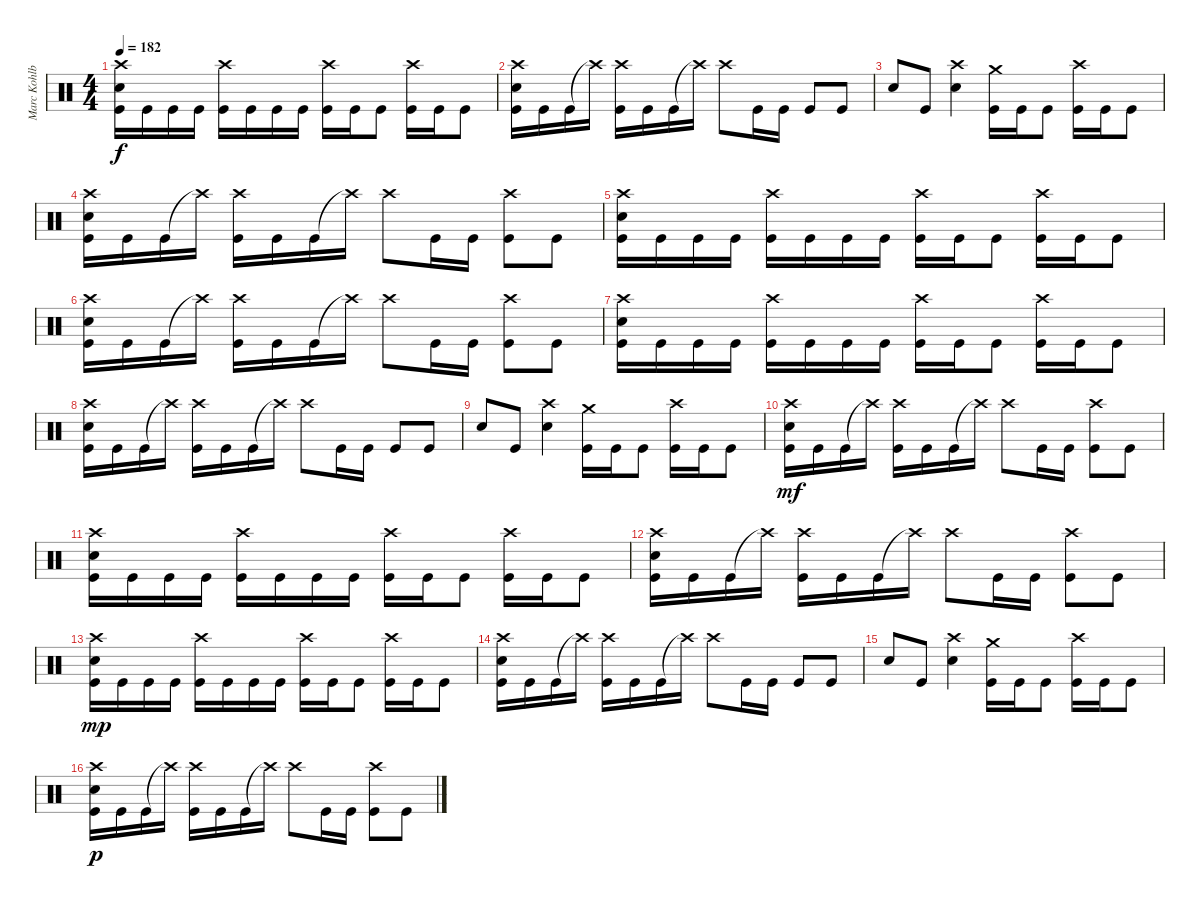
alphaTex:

\track ("Marc Kohlbry" "Marc Kohlb") {instrument percussion}
\staff {score}
\articulation defaults
\ts (4 4)
\tempo 182
\clef neutral
\ks c
("Crash high (hit)" "Electric Snare (hit)" "Kick (hit)").16{dy f} "Kick (hit)".16 "Kick (hit)".16 "Kick (hit)".16 ("Crash high (hit)" "Kick (hit)").16 "Kick (hit)".16 "Kick (hit)".16 "Kick (hit)".16 ("Crash high (hit)" "Kick (hit)").16 "Kick (hit)".16 "Kick (hit)".8 ("Crash high (hit)" "Kick (hit)").16 "Kick (hit)".16 "Kick (hit)".8 |
("Crash high (hit)" "Electric Snare (hit)" "Kick (hit)").16 "Kick (hit)".16 "Kick (hit)".16 "Crash high (hit)"{t}.16 ("Crash high (hit)" "Kick (hit)").16 "Kick (hit)".16 "Kick (hit)".16 "Crash high (hit)"{t}.16 "Crash high (hit)".8 "Kick (hit)".16 "Kick (hit)".16 "Kick (hit)".8 "Kick (hit)".8 |
"Electric Snare (hit)".8 "Kick (hit)".8 ("Crash high (hit)" "Electric Snare (hit)").4 ("Crash medium (hit)" "Kick (hit)").16 "Kick (hit)".16 "Kick (hit)".8 ("Crash high (hit)" "Kick (hit)").16 "Kick (hit)".16 "Kick (hit)".8 |
("Crash high (hit)" "Electric Snare (hit)" "Kick (hit)").16 "Kick (hit)".16 "Kick (hit)".16 "Crash high (hit)"{t}.16 ("Crash high (hit)" "Kick (hit)").16 "Kick (hit)".16 "Kick (hit)".16 "Crash high (hit)"{t}.16 "Crash high (hit)".8 "Kick (hit)".16 "Kick (hit)".16 ("Crash high (hit)" "Kick (hit)").8 "Kick (hit)".8 |
("Crash high (hit)" "Electric Snare (hit)" "Kick (hit)").16 "Kick (hit)".16 "Kick (hit)".16 "Kick (hit)".16 ("Crash high (hit)" "Kick (hit)").16 "Kick (hit)".16 "Kick (hit)".16 "Kick (hit)".16 ("Crash high (hit)" "Kick (hit)").16 "Kick (hit)".16 "Kick (hit)".8 ("Crash high (hit)" "Kick (hit)").16 "Kick (hit)".16 "Kick (hit)".8 |
("Crash high (hit)" "Electric Snare (hit)" "Kick (hit)").16 "Kick (hit)".16 "Kick (hit)".16 "Crash high (hit)"{t}.16 ("Crash high (hit)" "Kick (hit)").16 "Kick (hit)".16 "Kick (hit)".16 "Crash high (hit)"{t}.16 "Crash high (hit)".8 "Kick (hit)".16 "Kick (hit)".16 ("Crash high (hit)" "Kick (hit)").8 "Kick (hit)".8 |
("Crash high (hit)" "Electric Snare (hit)" "Kick (hit)").16 "Kick (hit)".16 "Kick (hit)".16 "Kick (hit)".16 ("Crash high (hit)" "Kick (hit)").16 "Kick (hit)".16 "Kick (hit)".16 "Kick (hit)".16 ("Crash high (hit)" "Kick (hit)").16 "Kick (hit)".16 "Kick (hit)".8 ("Crash high (hit)" "Kick (hit)").16 "Kick (hit)".16 "Kick (hit)".8 |
("Crash high (hit)" "Electric Snare (hit)" "Kick (hit)").16 "Kick (hit)".16 "Kick (hit)".16 "Crash high (hit)"{t}.16 ("Crash high (hit)" "Kick (hit)").16 "Kick (hit)".16 "Kick (hit)".16 "Crash high (hit)"{t}.16 "Crash high (hit)".8 "Kick (hit)".16 "Kick (hit)".16 "Kick (hit)".8 "Kick (hit)".8 |
"Electric Snare (hit)".8 "Kick (hit)".8 ("Crash high (hit)" "Electric Snare (hit)").4 ("Crash medium (hit)" "Kick (hit)").16 "Kick (hit)".16 "Kick (hit)".8 ("Crash high (hit)" "Kick (hit)").16 "Kick (hit)".16 "Kick (hit)".8 |
("Crash high (hit)" "Electric Snare (hit)" "Kick (hit)").16{dy mf} "Kick (hit)".16 "Kick (hit)".16 "Crash high (hit)"{t}.16 ("Crash high (hit)" "Kick (hit)").16 "Kick (hit)".16 "Kick (hit)".16 "Crash high (hit)"{t}.16 "Crash high (hit)".8 "Kick (hit)".16 "Kick (hit)".16 ("Crash high (hit)" "Kick (hit)").8 "Kick (hit)".8 |
("Crash high (hit)" "Electric Snare (hit)" "Kick (hit)").16 "Kick (hit)".16 "Kick (hit)".16 "Kick (hit)".16 ("Crash high (hit)" "Kick (hit)").16 "Kick (hit)".16 "Kick (hit)".16 "Kick (hit)".16 ("Crash high (hit)" "Kick (hit)").16 "Kick (hit)".16 "Kick (hit)".8 ("Crash high (hit)" "Kick (hit)").16 "Kick (hit)".16 "Kick (hit)".8 |
("Crash high (hit)" "Electric Snare (hit)" "Kick (hit)").16 "Kick (hit)".16 "Kick (hit)".16 "Crash high (hit)"{t}.16 ("Crash high (hit)" "Kick (hit)").16 "Kick (hit)".16 "Kick (hit)".16 "Crash high (hit)"{t}.16 "Crash high (hit)".8 "Kick (hit)".16 "Kick (hit)".16 ("Crash high (hit)" "Kick (hit)").8 "Kick (hit)".8 |
("Crash high (hit)" "Electric Snare (hit)" "Kick (hit)").16{dy mp} "Kick (hit)".16 "Kick (hit)".16 "Kick (hit)".16 ("Crash high (hit)" "Kick (hit)").16 "Kick (hit)".16 "Kick (hit)".16 "Kick (hit)".16 ("Crash high (hit)" "Kick (hit)").16 "Kick (hit)".16 "Kick (hit)".8 ("Crash high (hit)" "Kick (hit)").16 "Kick (hit)".16 "Kick (hit)".8 |
("Crash high (hit)" "Electric Snare (hit)" "Kick (hit)").16 "Kick (hit)".16 "Kick (hit)".16 "Crash high (hit)"{t}.16 ("Crash high (hit)" "Kick (hit)").16 "Kick (hit)".16 "Kick (hit)".16 "Crash high (hit)"{t}.16 "Crash high (hit)".8 "Kick (hit)".16 "Kick (hit)".16 "Kick (hit)".8 "Kick (hit)".8 |
"Electric Snare (hit)".8 "Kick (hit)".8 ("Crash high (hit)" "Electric Snare (hit)").4 ("Crash medium (hit)" "Kick (hit)").16 "Kick (hit)".16 "Kick (hit)".8 ("Crash high (hit)" "Kick (hit)").16 "Kick (hit)".16 "Kick (hit)".8 |
("Crash high (hit)" "Electric Snare (hit)" "Kick (hit)").16{dy p} "Kick (hit)".16 "Kick (hit)".16 "Crash high (hit)"{t}.16 ("Crash high (hit)" "Kick (hit)").16 "Kick (hit)".16 "Kick (hit)".16 "Crash high (hit)"{t}.16 "Crash high (hit)".8 "Kick (hit)".16 "Kick (hit)".16 ("Crash high (hit)" "Kick (hit)").8 "Kick (hit)".8
